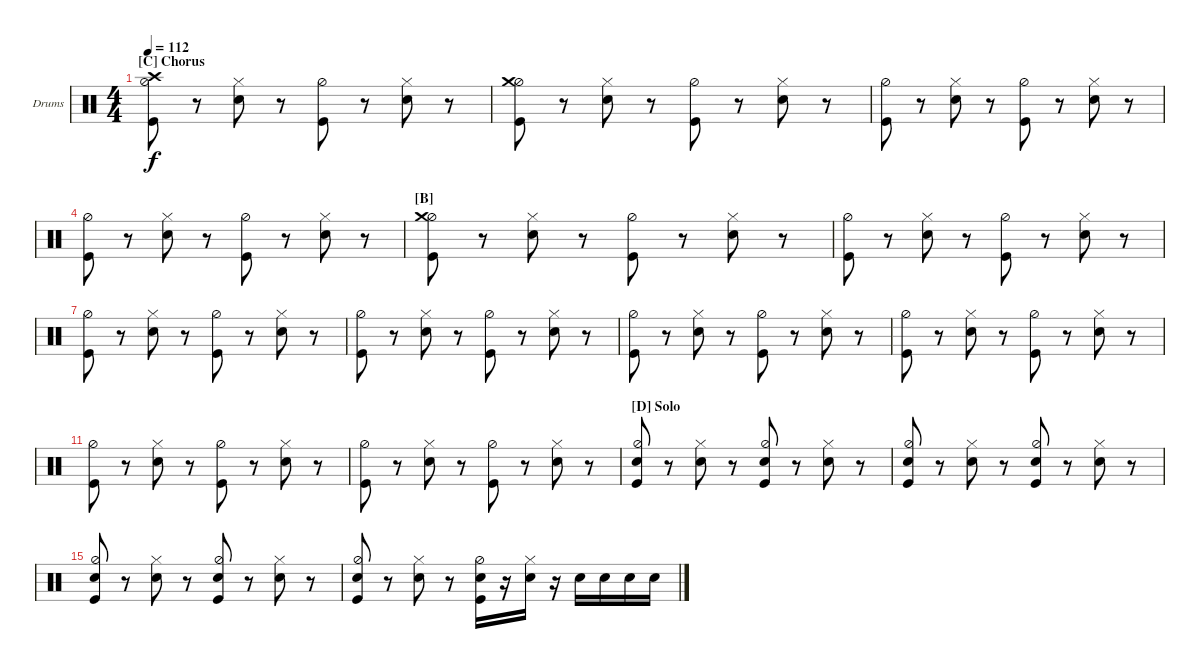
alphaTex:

\bracketExtendMode nobrackets
\firstSystemTrackNameOrientation horizontal
\otherSystemsTrackNameOrientation horizontal
\defaultBarNumberDisplay FirstOfSystem
\track ("Drumkit" "Drums") {instrument percussion}
\staff {score}
\articulation defaults
\ts (4 4)
\section ("C" "Chorus")
\tempo 112
\clef neutral
\scale
0.333333
\ks c
("Kick (hit)" "Hi-Hat (half)" "Crash high (hit)").8{dy f} r.8 ("Snare (hit) 2" "Hi-Hat (closed)").8 r.8 ("Kick (hit)" "Hi-Hat (half)").8 r.8 ("Snare (hit) 2" "Hi-Hat (closed)").8 r.8 |
\scale
0.333333 ("Kick (hit)" "Hi-Hat (half)" "Crash medium (hit)").8 r.8 ("Snare (hit) 2" "Hi-Hat (closed)").8 r.8 ("Kick (hit)" "Hi-Hat (half)").8 r.8 ("Snare (hit) 2" "Hi-Hat (closed)").8 r.8 |
\scale
0.333333 ("Kick (hit)" "Hi-Hat (half)").8 r.8 ("Snare (hit) 2" "Hi-Hat (closed)").8 r.8 ("Kick (hit)" "Hi-Hat (half)").8 r.8 ("Snare (hit) 2" "Hi-Hat (closed)").8 r.8 |
("Kick (hit)" "Hi-Hat (half)").8 r.8 ("Snare (hit) 2" "Hi-Hat (closed)").8 r.8 ("Kick (hit)" "Hi-Hat (half)").8 r.8 ("Snare (hit) 2" "Hi-Hat (closed)").8 r.8 |
\section ("B" "")
\scale
0.333333 ("Kick (hit)" "Hi-Hat (half)" "Crash medium (hit)").8 r.8 ("Snare (hit) 2" "Hi-Hat (closed)").8 r.8 ("Kick (hit)" "Hi-Hat (half)").8 r.8 ("Snare (hit) 2" "Hi-Hat (closed)").8 r.8 |
\scale
0.333333 ("Kick (hit)" "Hi-Hat (half)").8 r.8 ("Snare (hit) 2" "Hi-Hat (closed)").8 r.8 ("Kick (hit)" "Hi-Hat (half)").8 r.8 ("Snare (hit) 2" "Hi-Hat (closed)").8 r.8 |
\scale
0.333333 ("Kick (hit)" "Hi-Hat (half)").8 r.8 ("Snare (hit) 2" "Hi-Hat (closed)").8 r.8 ("Kick (hit)" "Hi-Hat (half)").8 r.8 ("Snare (hit) 2" "Hi-Hat (closed)").8 r.8 |
\scale
0.333333 ("Kick (hit)" "Hi-Hat (half)").8 r.8 ("Snare (hit) 2" "Hi-Hat (closed)").8 r.8 ("Kick (hit)" "Hi-Hat (half)").8 r.8 ("Snare (hit) 2" "Hi-Hat (closed)").8 r.8 |
\scale
0.333333 ("Kick (hit)" "Hi-Hat (half)").8 r.8 ("Snare (hit) 2" "Hi-Hat (closed)").8 r.8 ("Kick (hit)" "Hi-Hat (half)").8 r.8 ("Snare (hit) 2" "Hi-Hat (closed)").8 r.8 |
\scale
0.333333 ("Kick (hit)" "Hi-Hat (half)").8 r.8 ("Snare (hit) 2" "Hi-Hat (closed)").8 r.8 ("Kick (hit)" "Hi-Hat (half)").8 r.8 ("Snare (hit) 2" "Hi-Hat (closed)").8 r.8 |
\scale
0.333333 ("Kick (hit)" "Hi-Hat (half)").8 r.8 ("Snare (hit) 2" "Hi-Hat (closed)").8 r.8 ("Kick (hit)" "Hi-Hat (half)").8 r.8 ("Snare (hit) 2" "Hi-Hat (closed)").8 r.8 |
\scale
0.333333 ("Kick (hit)" "Hi-Hat (half)").8 r.8 ("Snare (hit) 2" "Hi-Hat (closed)").8 r.8 ("Kick (hit)" "Hi-Hat (half)").8 r.8 ("Snare (hit) 2" "Hi-Hat (closed)").8 r.8 |
\section ("D" "Solo")
\scale
0.333333 ("Kick (hit)" "Hi-Hat (half)" "Snare (hit) 2").8 r.8 ("Snare (hit) 2" "Hi-Hat (closed)").8 r.8 ("Kick (hit)" "Hi-Hat (half)" "Snare (hit) 2").8 r.8 ("Snare (hit) 2" "Hi-Hat (closed)").8 r.8 |
\scale
0.333333 ("Kick (hit)" "Hi-Hat (half)" "Snare (hit) 2").8 r.8 ("Snare (hit) 2" "Hi-Hat (closed)").8 r.8 ("Kick (hit)" "Hi-Hat (half)" "Snare (hit) 2").8 r.8 ("Snare (hit) 2" "Hi-Hat (closed)").8 r.8 |
\scale
0.333333 ("Kick (hit)" "Hi-Hat (half)" "Snare (hit) 2").8 r.8 ("Snare (hit) 2" "Hi-Hat (closed)").8 r.8 ("Kick (hit)" "Hi-Hat (half)" "Snare (hit) 2").8 r.8 ("Snare (hit) 2" "Hi-Hat (closed)").8 r.8 |
\scale
0.333333 ("Kick (hit)" "Hi-Hat (half)" "Snare (hit) 2").8 r.8 ("Snare (hit) 2" "Hi-Hat (closed)").8 r.8 ("Kick (hit)" "Hi-Hat (half)" "Snare (hit) 2").16 r.16 ("Hi-Hat (closed)" "Snare (hit) 2").16 r.16 "Snare (hit) 2".16 "Snare (hit) 2".16 "Snare (hit) 2".16 "Snare (hit) 2".16
